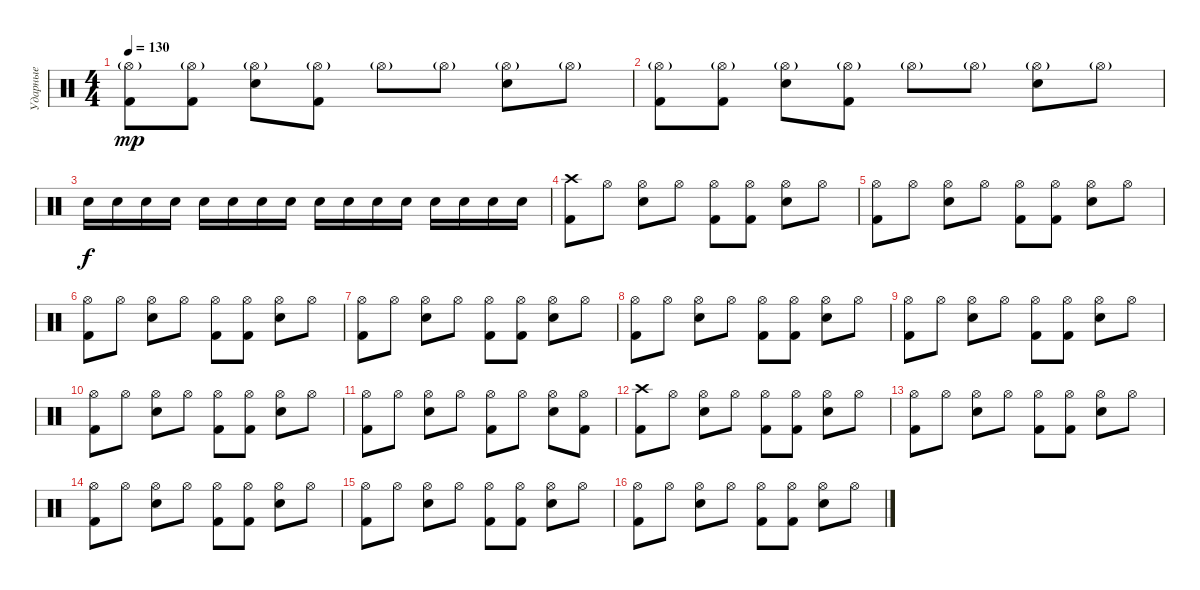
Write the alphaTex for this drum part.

\track ("Ударные" "Ударные") {instrument percussion}
\staff {score}
\articulation defaults
\ts (4 4)
\tempo 130
\clef neutral
\ks c
("Kick (hit) 2" "Hi-Hat (open)"{g}).8{dy mp} ("Kick (hit) 2" "Hi-Hat (open)"{g}).8 ("Electric Snare (hit)" "Hi-Hat (open)"{g}).8 ("Kick (hit) 2" "Hi-Hat (open)"{g}).8 "Hi-Hat (open)"{g}.8 "Hi-Hat (open)"{g}.8 ("Electric Snare (hit)" "Hi-Hat (open)"{g}).8 "Hi-Hat (open)"{g}.8 |
("Kick (hit) 2" "Hi-Hat (open)"{g}).8 ("Kick (hit) 2" "Hi-Hat (open)"{g}).8 ("Electric Snare (hit)" "Hi-Hat (open)"{g}).8 ("Kick (hit) 2" "Hi-Hat (open)"{g}).8 "Hi-Hat (open)"{g}.8 "Hi-Hat (open)"{g}.8 ("Electric Snare (hit)" "Hi-Hat (open)"{g}).8 "Hi-Hat (open)"{g}.8 |
"Electric Snare (hit)".16{dy f} "Electric Snare (hit)".16 "Electric Snare (hit)".16 "Electric Snare (hit)".16 "Electric Snare (hit)".16 "Electric Snare (hit)".16 "Electric Snare (hit)".16 "Electric Snare (hit)".16 "Electric Snare (hit)".16 "Electric Snare (hit)".16 "Electric Snare (hit)".16 "Electric Snare (hit)".16 "Electric Snare (hit)".16 "Electric Snare (hit)".16 "Electric Snare (hit)".16 "Electric Snare (hit)".16 |
("Crash high (hit)" "Kick (hit) 2").8 "Hi-Hat (open)".8 ("Electric Snare (hit)" "Hi-Hat (open)").8 "Hi-Hat (open)".8 ("Hi-Hat (open)" "Kick (hit) 2").8 ("Hi-Hat (open)" "Kick (hit) 2").8 ("Hi-Hat (open)" "Electric Snare (hit)").8 "Hi-Hat (open)".8 |
("Hi-Hat (open)" "Kick (hit) 2").8 "Hi-Hat (open)".8 ("Electric Snare (hit)" "Hi-Hat (open)").8 "Hi-Hat (open)".8 ("Hi-Hat (open)" "Kick (hit) 2").8 ("Hi-Hat (open)" "Kick (hit) 2").8 ("Hi-Hat (open)" "Electric Snare (hit)").8 "Hi-Hat (open)".8 |
("Hi-Hat (open)" "Kick (hit) 2").8 "Hi-Hat (open)".8 ("Electric Snare (hit)" "Hi-Hat (open)").8 "Hi-Hat (open)".8 ("Hi-Hat (open)" "Kick (hit) 2").8 ("Hi-Hat (open)" "Kick (hit) 2").8 ("Hi-Hat (open)" "Electric Snare (hit)").8 "Hi-Hat (open)".8 |
("Hi-Hat (open)" "Kick (hit) 2").8 "Hi-Hat (open)".8 ("Electric Snare (hit)" "Hi-Hat (open)").8 "Hi-Hat (open)".8 ("Hi-Hat (open)" "Kick (hit) 2").8 ("Hi-Hat (open)" "Kick (hit) 2").8 ("Hi-Hat (open)" "Electric Snare (hit)").8 "Hi-Hat (open)".8 |
("Hi-Hat (open)" "Kick (hit) 2").8 "Hi-Hat (open)".8 ("Electric Snare (hit)" "Hi-Hat (open)").8 "Hi-Hat (open)".8 ("Hi-Hat (open)" "Kick (hit) 2").8 ("Hi-Hat (open)" "Kick (hit) 2").8 ("Hi-Hat (open)" "Electric Snare (hit)").8 "Hi-Hat (open)".8 |
("Hi-Hat (open)" "Kick (hit) 2").8 "Hi-Hat (open)".8 ("Electric Snare (hit)" "Hi-Hat (open)").8 "Hi-Hat (open)".8 ("Hi-Hat (open)" "Kick (hit) 2").8 ("Hi-Hat (open)" "Kick (hit) 2").8 ("Hi-Hat (open)" "Electric Snare (hit)").8 "Hi-Hat (open)".8 |
("Hi-Hat (open)" "Kick (hit) 2").8 "Hi-Hat (open)".8 ("Electric Snare (hit)" "Hi-Hat (open)").8 "Hi-Hat (open)".8 ("Hi-Hat (open)" "Kick (hit) 2").8 ("Hi-Hat (open)" "Kick (hit) 2").8 ("Hi-Hat (open)" "Electric Snare (hit)").8 "Hi-Hat (open)".8 |
("Hi-Hat (open)" "Kick (hit) 2").8 "Hi-Hat (open)".8 ("Electric Snare (hit)" "Hi-Hat (open)").8 "Hi-Hat (open)".8 ("Hi-Hat (open)" "Kick (hit) 2").8 "Hi-Hat (open)".8 ("Hi-Hat (open)" "Electric Snare (hit)").8 ("Hi-Hat (open)" "Kick (hit) 2").8 |
("Crash high (hit)" "Kick (hit) 2").8 "Hi-Hat (open)".8 ("Electric Snare (hit)" "Hi-Hat (open)").8 "Hi-Hat (open)".8 ("Hi-Hat (open)" "Kick (hit) 2").8 ("Hi-Hat (open)" "Kick (hit) 2").8 ("Hi-Hat (open)" "Electric Snare (hit)").8 "Hi-Hat (open)".8 |
("Hi-Hat (open)" "Kick (hit) 2").8 "Hi-Hat (open)".8 ("Electric Snare (hit)" "Hi-Hat (open)").8 "Hi-Hat (open)".8 ("Hi-Hat (open)" "Kick (hit) 2").8 ("Hi-Hat (open)" "Kick (hit) 2").8 ("Hi-Hat (open)" "Electric Snare (hit)").8 "Hi-Hat (open)".8 |
("Hi-Hat (open)" "Kick (hit) 2").8 "Hi-Hat (open)".8 ("Electric Snare (hit)" "Hi-Hat (open)").8 "Hi-Hat (open)".8 ("Hi-Hat (open)" "Kick (hit) 2").8 ("Hi-Hat (open)" "Kick (hit) 2").8 ("Hi-Hat (open)" "Electric Snare (hit)").8 "Hi-Hat (open)".8 |
("Hi-Hat (open)" "Kick (hit) 2").8 "Hi-Hat (open)".8 ("Electric Snare (hit)" "Hi-Hat (open)").8 "Hi-Hat (open)".8 ("Hi-Hat (open)" "Kick (hit) 2").8 ("Hi-Hat (open)" "Kick (hit) 2").8 ("Hi-Hat (open)" "Electric Snare (hit)").8 "Hi-Hat (open)".8 |
("Hi-Hat (open)" "Kick (hit) 2").8 "Hi-Hat (open)".8 ("Electric Snare (hit)" "Hi-Hat (open)").8 "Hi-Hat (open)".8 ("Hi-Hat (open)" "Kick (hit) 2").8 ("Hi-Hat (open)" "Kick (hit) 2").8 ("Hi-Hat (open)" "Electric Snare (hit)").8 "Hi-Hat (open)".8
